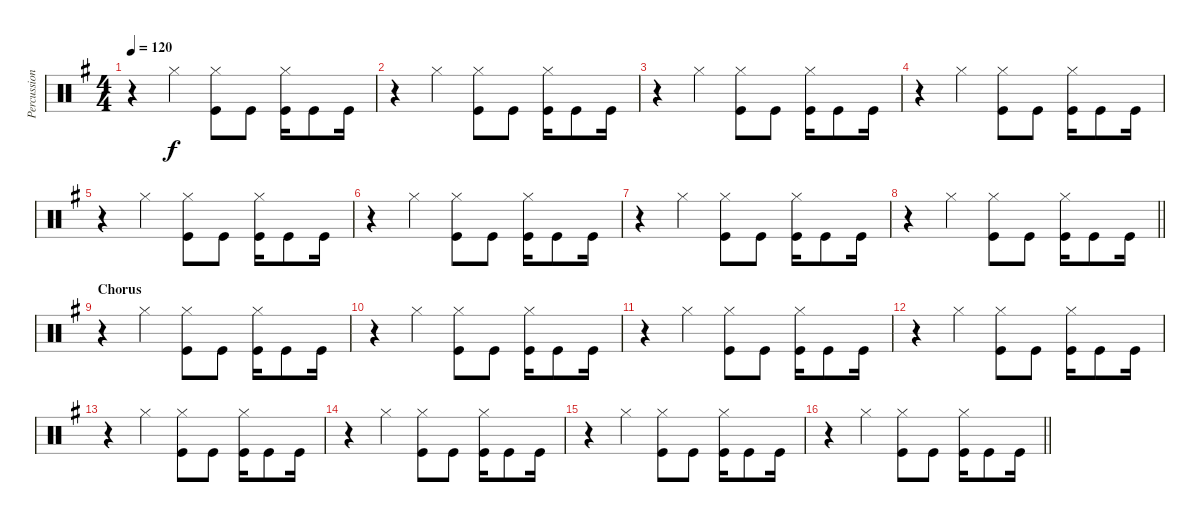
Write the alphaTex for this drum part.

\track ("Percussion" "Percussion") {instrument percussion}
\staff {score}
\articulation defaults
\ts (4 4)
\tempo 120
\clef neutral
\ks eminor
r.4{dy f} "Hi-Hat (closed)".4 ("Kick (hit)" "Hi-Hat (closed)").8 "Kick (hit)".8 ("Kick (hit)" "Hi-Hat (closed)").16 "Kick (hit)".8 "Kick (hit)".16 |
r.4 "Hi-Hat (closed)".4 ("Kick (hit)" "Hi-Hat (closed)").8 "Kick (hit)".8 ("Kick (hit)" "Hi-Hat (closed)").16 "Kick (hit)".8 "Kick (hit)".16 |
r.4 "Hi-Hat (closed)".4 ("Kick (hit)" "Hi-Hat (closed)").8 "Kick (hit)".8 ("Kick (hit)" "Hi-Hat (closed)").16 "Kick (hit)".8 "Kick (hit)".16 |
r.4 "Hi-Hat (closed)".4 ("Kick (hit)" "Hi-Hat (closed)").8 "Kick (hit)".8 ("Kick (hit)" "Hi-Hat (closed)").16 "Kick (hit)".8 "Kick (hit)".16 |
r.4 "Hi-Hat (closed)".4 ("Kick (hit)" "Hi-Hat (closed)").8 "Kick (hit)".8 ("Kick (hit)" "Hi-Hat (closed)").16 "Kick (hit)".8 "Kick (hit)".16 |
r.4 "Hi-Hat (closed)".4 ("Kick (hit)" "Hi-Hat (closed)").8 "Kick (hit)".8 ("Kick (hit)" "Hi-Hat (closed)").16 "Kick (hit)".8 "Kick (hit)".16 |
r.4 "Hi-Hat (closed)".4 ("Kick (hit)" "Hi-Hat (closed)").8 "Kick (hit)".8 ("Kick (hit)" "Hi-Hat (closed)").16 "Kick (hit)".8 "Kick (hit)".16 |
\barLineRight lightlight
r.4 "Hi-Hat (closed)".4 ("Kick (hit)" "Hi-Hat (closed)").8 "Kick (hit)".8 ("Kick (hit)" "Hi-Hat (closed)").16 "Kick (hit)".8 "Kick (hit)".16 |
\section ("" "Chorus")
r.4 "Hi-Hat (closed)".4 ("Kick (hit)" "Hi-Hat (closed)").8 "Kick (hit)".8 ("Kick (hit)" "Hi-Hat (closed)").16 "Kick (hit)".8 "Kick (hit)".16 |
r.4 "Hi-Hat (closed)".4 ("Kick (hit)" "Hi-Hat (closed)").8 "Kick (hit)".8 ("Kick (hit)" "Hi-Hat (closed)").16 "Kick (hit)".8 "Kick (hit)".16 |
r.4 "Hi-Hat (closed)".4 ("Kick (hit)" "Hi-Hat (closed)").8 "Kick (hit)".8 ("Kick (hit)" "Hi-Hat (closed)").16 "Kick (hit)".8 "Kick (hit)".16 |
r.4 "Hi-Hat (closed)".4 ("Kick (hit)" "Hi-Hat (closed)").8 "Kick (hit)".8 ("Kick (hit)" "Hi-Hat (closed)").16 "Kick (hit)".8 "Kick (hit)".16 |
r.4 "Hi-Hat (closed)".4 ("Kick (hit)" "Hi-Hat (closed)").8 "Kick (hit)".8 ("Kick (hit)" "Hi-Hat (closed)").16 "Kick (hit)".8 "Kick (hit)".16 |
r.4 "Hi-Hat (closed)".4 ("Kick (hit)" "Hi-Hat (closed)").8 "Kick (hit)".8 ("Kick (hit)" "Hi-Hat (closed)").16 "Kick (hit)".8 "Kick (hit)".16 |
r.4 "Hi-Hat (closed)".4 ("Kick (hit)" "Hi-Hat (closed)").8 "Kick (hit)".8 ("Kick (hit)" "Hi-Hat (closed)").16 "Kick (hit)".8 "Kick (hit)".16 |
\barLineRight lightlight
r.4 "Hi-Hat (closed)".4 ("Kick (hit)" "Hi-Hat (closed)").8 "Kick (hit)".8 ("Kick (hit)" "Hi-Hat (closed)").16 "Kick (hit)".8 "Kick (hit)".16
